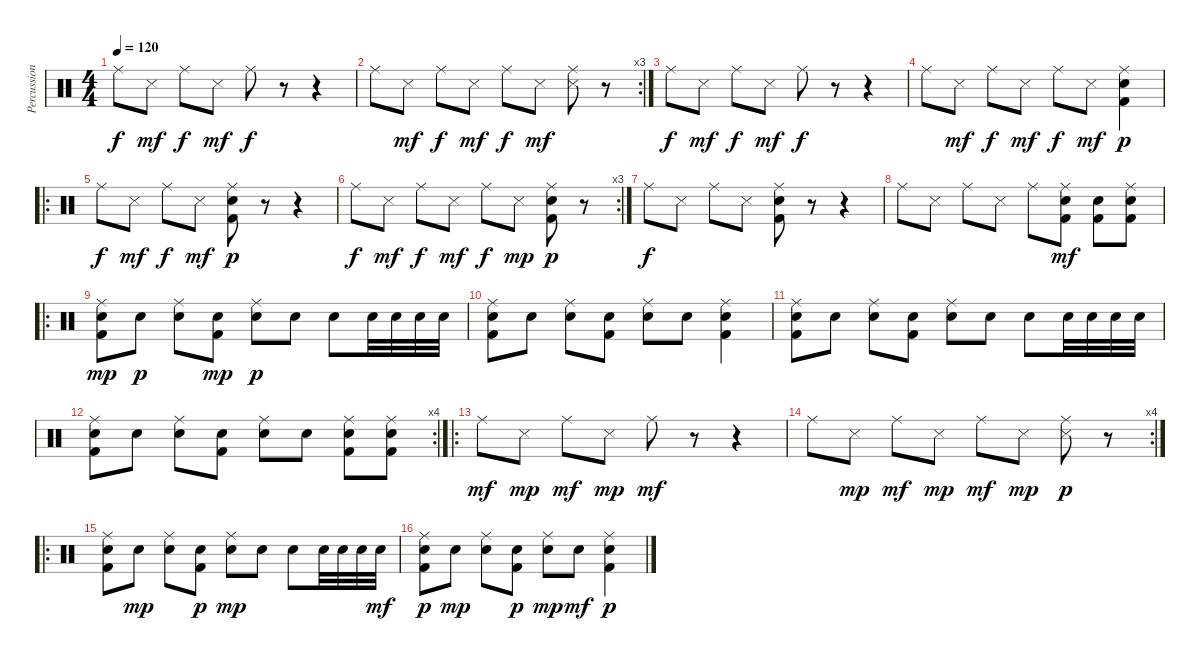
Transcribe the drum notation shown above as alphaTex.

\track ("Percussion" "Percussion") {instrument percussion}
\staff {score}
\articulation defaults
\ts (4 4)
\tempo 120
\clef neutral
\ks c "Ride (middle)".8{dy f} "Snare (side stick) 3".8{dy mf} "Ride (middle)".8{dy f} "Snare (side stick) 3".8{dy mf} "Ride (middle)".8{dy f}
r.8 r.4 |
\rc 3 "Ride (middle)".8 "Snare (side stick) 3".8{dy mf} "Ride (middle)".8{dy f} "Snare (side stick) 3".8{dy mf} "Ride (middle)".8{dy f} "Snare (side stick) 3".8{dy mf}
("Ride (middle)" "Snare (side stick) 3").8 r.8 |
"Ride (middle)".8{dy f} "Snare (side stick) 3".8{dy mf} "Ride (middle)".8{dy f} "Snare (side stick) 3".8{dy mf} "Ride (middle)".8{dy f} r.8 r.4 |
"Ride (middle)".8 "Snare (side stick) 3".8{dy mf} "Ride (middle)".8{dy f} "Snare (side stick) 3".8{dy mf} "Ride (middle)".8{dy f} "Snare (side stick) 3".8{dy mf} ("Ride (middle)" "Electric Snare (hit)" "Kick (hit) 2").4{dy p} |
\ro "Ride (middle)".8{dy f} "Snare (side stick) 3".8{dy mf} "Ride (middle)".8{dy f} "Snare (side stick) 3".8{dy mf}
("Ride (middle)" "Kick (hit) 2" "Electric Snare (hit)").8{dy p} r.8 r.4 |
\rc 3 "Ride (middle)".8{dy f} "Snare (side stick) 3".8{dy mf} "Ride (middle)".8{dy f} "Snare (side stick) 3".8{dy mf} "Ride (middle)".8{dy f} "Snare (side stick) 3".8{dy mp}
("Ride (middle)" "Kick (hit) 2" "Electric Snare (hit)").8{dy p} r.8 |
"Ride (middle)".8{dy f} "Snare (side stick) 3".8 "Ride (middle)".8 "Snare (side stick) 3".8 ("Ride (middle)" "Kick (hit) 2" "Electric Snare (hit)").8 r.8 r.4 |
"Ride (middle)".8 "Snare (side stick) 3".8 "Ride (middle)".8 "Snare (side stick) 3".8 "Ride (middle)".8 ("Ride (middle)" "Kick (hit) 2" "Electric Snare (hit)").8{dy mf} ("Kick (hit) 2" "Electric Snare (hit)").8 ("Ride (middle)" "Kick (hit) 2" "Electric Snare (hit)").8 |
\ro
("Ride (middle)" "Snare (hit) 2" "Kick (hit) 2").8{dy mp} "Snare (hit) 2".8{dy p} ("Ride (middle)" "Snare (hit) 2").8 ("Snare (hit) 2" "Kick (hit) 2").8{dy mp} ("Ride (middle)" "Snare (hit) 2").8{dy p} "Snare (hit) 2".8 "Snare (hit) 2".8 "Snare (hit) 2".32 "Snare (hit) 2".32 "Snare (hit) 2".32 "Snare (hit) 2".32 |
("Ride (middle)" "Snare (hit) 2" "Kick (hit) 2").8 "Snare (hit) 2".8 ("Ride (middle)" "Snare (hit) 2").8 ("Snare (hit) 2" "Kick (hit) 2").8 ("Ride (middle)" "Snare (hit) 2").8 "Snare (hit) 2".8 ("Ride (middle)" "Snare (hit) 2" "Kick (hit) 2").4 |
("Ride (middle)" "Snare (hit) 2" "Kick (hit) 2").8 "Snare (hit) 2".8 ("Ride (middle)" "Snare (hit) 2").8 ("Snare (hit) 2" "Kick (hit) 2").8 ("Ride (middle)" "Snare (hit) 2").8 "Snare (hit) 2".8 "Snare (hit) 2".8 "Snare (hit) 2".32 "Snare (hit) 2".32 "Snare (hit) 2".32 "Snare (hit) 2".32 |
\rc 4
("Ride (middle)" "Snare (hit) 2" "Kick (hit) 2").8 "Snare (hit) 2".8 ("Ride (middle)" "Snare (hit) 2").8 ("Snare (hit) 2" "Kick (hit) 2").8 ("Ride (middle)" "Snare (hit) 2").8 "Snare (hit) 2".8 ("Ride (middle)" "Snare (hit) 2" "Kick (hit) 2").8 ("Ride (middle)" "Snare (hit) 2" "Kick (hit) 2").8 |
\ro "Ride (middle)".8{dy mf} "Snare (side stick) 3".8{dy mp} "Ride (middle)".8{dy mf} "Snare (side stick) 3".8{dy mp} "Ride (middle)".8{dy mf}
r.8 r.4 |
\rc 4 "Ride (middle)".8 "Snare (side stick) 3".8{dy mp} "Ride (middle)".8{dy mf} "Snare (side stick) 3".8{dy mp} "Ride (middle)".8{dy mf} "Snare (side stick) 3".8{dy mp}
("Ride (middle)" "Snare (side stick) 3").8{dy p} r.8 |
\ro
("Ride (middle)" "Snare (hit) 2" "Kick (hit) 2").8 "Snare (hit) 2".8{dy mp} ("Ride (middle)" "Snare (hit) 2").8 ("Snare (hit) 2" "Kick (hit) 2").8{dy p} ("Ride (middle)" "Snare (hit) 2").8{dy mp} "Snare (hit) 2".8 "Snare (hit) 2".8 "Snare (hit) 2".32 "Snare (hit) 2".32 "Snare (hit) 2".32 "Snare (hit) 2".32{dy mf} |
("Ride (middle)" "Snare (hit) 2" "Kick (hit) 2").8{dy p} "Snare (hit) 2".8{dy mp} ("Ride (middle)" "Snare (hit) 2").8 ("Snare (hit) 2" "Kick (hit) 2").8{dy p} ("Ride (middle)" "Snare (hit) 2").8{dy mp} "Snare (hit) 2".8{dy mf} ("Ride (middle)" "Snare (hit) 2" "Kick (hit) 2").4{dy p}
